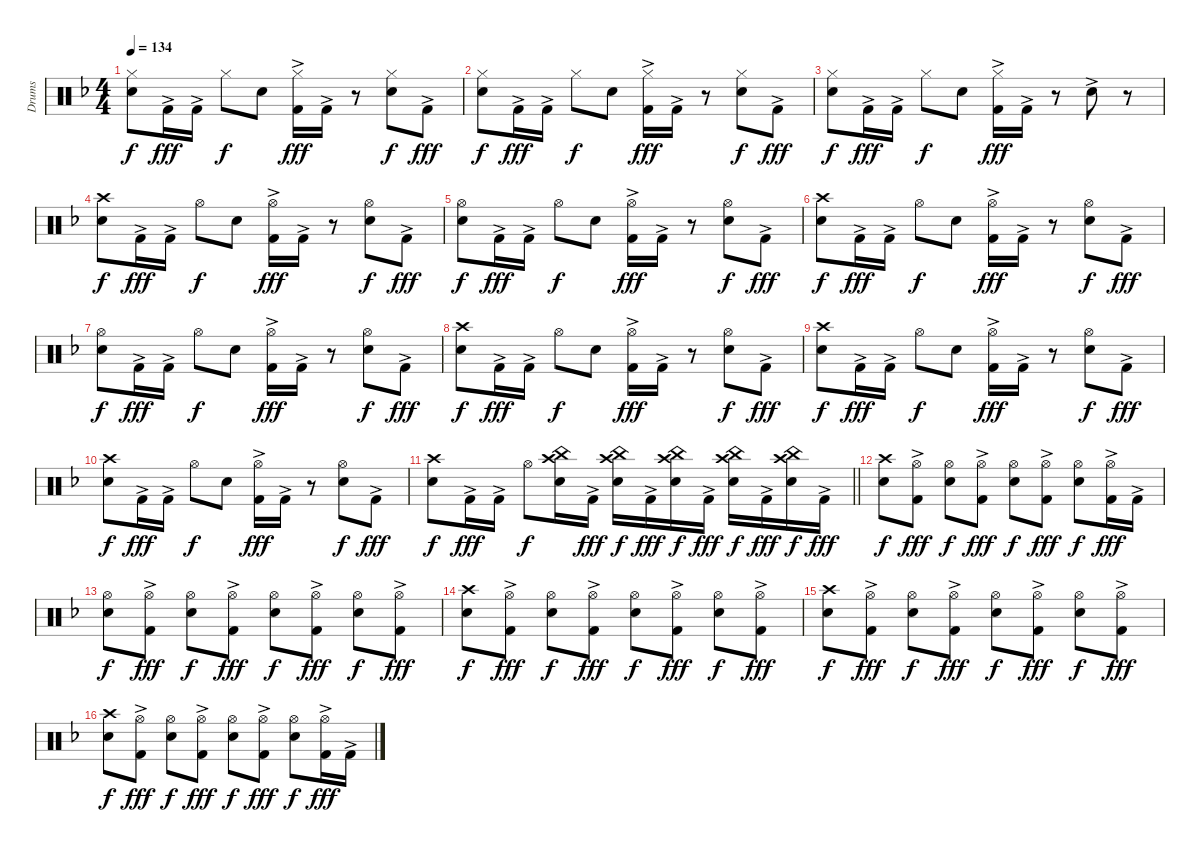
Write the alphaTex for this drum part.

\track ("Drums" "Drums") {instrument percussion}
\staff {score}
\articulation defaults
\ts (4 4)
\tempo 134
\clef neutral
\ks dminor
("Hi-Hat (closed)" "Snare (hit) 2").8{dy f} "Kick (hit) 2"{ac}.16{dy fff} "Kick (hit) 2"{ac}.16 "Hi-Hat (closed)".8{dy f} "Snare (hit) 2".8 ("Hi-Hat (closed)" "Kick (hit) 2"{ac}).16{dy fff} "Kick (hit) 2"{ac}.16 r.8 ("Hi-Hat (closed)" "Snare (hit) 2").8{dy f} "Kick (hit) 2"{ac}.8{dy fff} |
("Hi-Hat (closed)" "Snare (hit) 2").8{dy f} "Kick (hit) 2"{ac}.16{dy fff} "Kick (hit) 2"{ac}.16 "Hi-Hat (closed)".8{dy f} "Snare (hit) 2".8 ("Hi-Hat (closed)" "Kick (hit) 2"{ac}).16{dy fff} "Kick (hit) 2"{ac}.16 r.8 ("Hi-Hat (closed)" "Snare (hit) 2").8{dy f} "Kick (hit) 2"{ac}.8{dy fff} |
("Hi-Hat (closed)" "Snare (hit) 2").8{dy f} "Kick (hit) 2"{ac}.16{dy fff} "Kick (hit) 2"{ac}.16 "Hi-Hat (closed)".8{dy f} "Snare (hit) 2".8 ("Hi-Hat (closed)" "Kick (hit) 2"{ac}).16{dy fff} "Kick (hit) 2"{ac}.16 r.8 "Snare (hit) 2"{ac}.8 r.8 |
("Crash high (hit)" "Snare (hit) 2").8{dy f} "Kick (hit) 2"{ac}.16{dy fff} "Kick (hit) 2"{ac}.16 "Hi-Hat (open)".8{dy f} "Snare (hit) 2".8 ("Hi-Hat (open)" "Kick (hit) 2"{ac}).16{dy fff} "Kick (hit) 2"{ac}.16 r.8 ("Hi-Hat (open)" "Snare (hit) 2").8{dy f} "Kick (hit) 2"{ac}.8{dy fff} |
("Hi-Hat (open)" "Snare (hit) 2").8{dy f} "Kick (hit) 2"{ac}.16{dy fff} "Kick (hit) 2"{ac}.16 "Hi-Hat (open)".8{dy f} "Snare (hit) 2".8 ("Hi-Hat (open)" "Kick (hit) 2"{ac}).16{dy fff} "Kick (hit) 2"{ac}.16 r.8 ("Hi-Hat (open)" "Snare (hit) 2").8{dy f} "Kick (hit) 2"{ac}.8{dy fff} |
("Crash high (hit)" "Snare (hit) 2").8{dy f} "Kick (hit) 2"{ac}.16{dy fff} "Kick (hit) 2"{ac}.16 "Hi-Hat (open)".8{dy f} "Snare (hit) 2".8 ("Hi-Hat (open)" "Kick (hit) 2"{ac}).16{dy fff} "Kick (hit) 2"{ac}.16 r.8 ("Hi-Hat (open)" "Snare (hit) 2").8{dy f} "Kick (hit) 2"{ac}.8{dy fff} |
("Hi-Hat (open)" "Snare (hit) 2").8{dy f} "Kick (hit) 2"{ac}.16{dy fff} "Kick (hit) 2"{ac}.16 "Hi-Hat (open)".8{dy f} "Snare (hit) 2".8 ("Hi-Hat (open)" "Kick (hit) 2"{ac}).16{dy fff} "Kick (hit) 2"{ac}.16 r.8 ("Hi-Hat (open)" "Snare (hit) 2").8{dy f} "Kick (hit) 2"{ac}.8{dy fff} |
("Crash high (hit)" "Snare (hit) 2").8{dy f} "Kick (hit) 2"{ac}.16{dy fff} "Kick (hit) 2"{ac}.16 "Hi-Hat (open)".8{dy f} "Snare (hit) 2".8 ("Hi-Hat (open)" "Kick (hit) 2"{ac}).16{dy fff} "Kick (hit) 2"{ac}.16 r.8 ("Hi-Hat (open)" "Snare (hit) 2").8{dy f} "Kick (hit) 2"{ac}.8{dy fff} |
("Crash high (hit)" "Snare (hit) 2").8{dy f} "Kick (hit) 2"{ac}.16{dy fff} "Kick (hit) 2"{ac}.16 "Hi-Hat (open)".8{dy f} "Snare (hit) 2".8 ("Hi-Hat (open)" "Kick (hit) 2"{ac}).16{dy fff} "Kick (hit) 2"{ac}.16 r.8 ("Hi-Hat (open)" "Snare (hit) 2").8{dy f} "Kick (hit) 2"{ac}.8{dy fff} |
("Crash high (hit)" "Snare (hit) 2").8{dy f} "Kick (hit) 2"{ac}.16{dy fff} "Kick (hit) 2"{ac}.16 "Hi-Hat (open)".8{dy f} "Snare (hit) 2".8 ("Hi-Hat (open)" "Kick (hit) 2"{ac}).16{dy fff} "Kick (hit) 2"{ac}.16 r.8 ("Hi-Hat (open)" "Snare (hit) 2").8{dy f} "Kick (hit) 2"{ac}.8{dy fff} |
\barLineRight lightlight
("Crash high (hit)" "Snare (hit) 2").8{dy f} "Kick (hit) 2"{ac}.16{dy fff} "Kick (hit) 2"{ac}.16 "Hi-Hat (open)".8{dy f} ("Crash high (hit)" "China (hit)" "Snare (hit) 2").16 "Kick (hit) 2"{ac}.16{dy fff} ("Crash high (hit)" "China (hit)" "Snare (hit) 2").16{dy f} "Kick (hit) 2"{ac}.16{dy fff} ("Crash high (hit)" "China (hit)" "Snare (hit) 2").16{dy f} "Kick (hit) 2"{ac}.16{dy fff} ("Crash high (hit)" "China (hit)" "Snare (hit) 2").16{dy f} "Kick (hit) 2"{ac}.16{dy fff} ("Crash high (hit)" "China (hit)" "Snare (hit) 2").16{dy f} "Kick (hit) 2"{ac}.16{dy fff} |
("Crash high (hit)" "Snare (hit) 2").8{dy f} ("Hi-Hat (open)" "Kick (hit) 2"{ac}).8{dy fff} ("Hi-Hat (open)" "Snare (hit) 2").8{dy f} ("Hi-Hat (open)" "Kick (hit) 2"{ac}).8{dy fff} ("Hi-Hat (open)" "Snare (hit) 2").8{dy f} ("Hi-Hat (open)" "Kick (hit) 2"{ac}).8{dy fff} ("Hi-Hat (open)" "Snare (hit) 2").8{dy f} ("Hi-Hat (open)" "Kick (hit) 2"{ac}).16{dy fff} "Kick (hit) 2"{ac}.16 |
("Hi-Hat (open)" "Snare (hit) 2").8{dy f} ("Hi-Hat (open)" "Kick (hit) 2"{ac}).8{dy fff} ("Hi-Hat (open)" "Snare (hit) 2").8{dy f} ("Hi-Hat (open)" "Kick (hit) 2"{ac}).8{dy fff} ("Hi-Hat (open)" "Snare (hit) 2").8{dy f} ("Hi-Hat (open)" "Kick (hit) 2"{ac}).8{dy fff} ("Hi-Hat (open)" "Snare (hit) 2").8{dy f} ("Hi-Hat (open)" "Kick (hit) 2"{ac}).8{dy fff} |
("Crash high (hit)" "Snare (hit) 2").8{dy f} ("Hi-Hat (open)" "Kick (hit) 2"{ac}).8{dy fff} ("Hi-Hat (open)" "Snare (hit) 2").8{dy f} ("Hi-Hat (open)" "Kick (hit) 2"{ac}).8{dy fff} ("Hi-Hat (open)" "Snare (hit) 2").8{dy f} ("Hi-Hat (open)" "Kick (hit) 2"{ac}).8{dy fff} ("Hi-Hat (open)" "Snare (hit) 2").8{dy f} ("Hi-Hat (open)" "Kick (hit) 2"{ac}).8{dy fff} |
("Crash high (hit)" "Snare (hit) 2").8{dy f} ("Hi-Hat (open)" "Kick (hit) 2"{ac}).8{dy fff} ("Hi-Hat (open)" "Snare (hit) 2").8{dy f} ("Hi-Hat (open)" "Kick (hit) 2"{ac}).8{dy fff} ("Hi-Hat (open)" "Snare (hit) 2").8{dy f} ("Hi-Hat (open)" "Kick (hit) 2"{ac}).8{dy fff} ("Hi-Hat (open)" "Snare (hit) 2").8{dy f} ("Hi-Hat (open)" "Kick (hit) 2"{ac}).8{dy fff} |
("Crash high (hit)" "Snare (hit) 2").8{dy f} ("Hi-Hat (open)" "Kick (hit) 2"{ac}).8{dy fff} ("Hi-Hat (open)" "Snare (hit) 2").8{dy f} ("Hi-Hat (open)" "Kick (hit) 2"{ac}).8{dy fff} ("Hi-Hat (open)" "Snare (hit) 2").8{dy f} ("Hi-Hat (open)" "Kick (hit) 2"{ac}).8{dy fff} ("Hi-Hat (open)" "Snare (hit) 2").8{dy f} ("Hi-Hat (open)" "Kick (hit) 2"{ac}).16{dy fff} "Kick (hit) 2"{ac}.16
